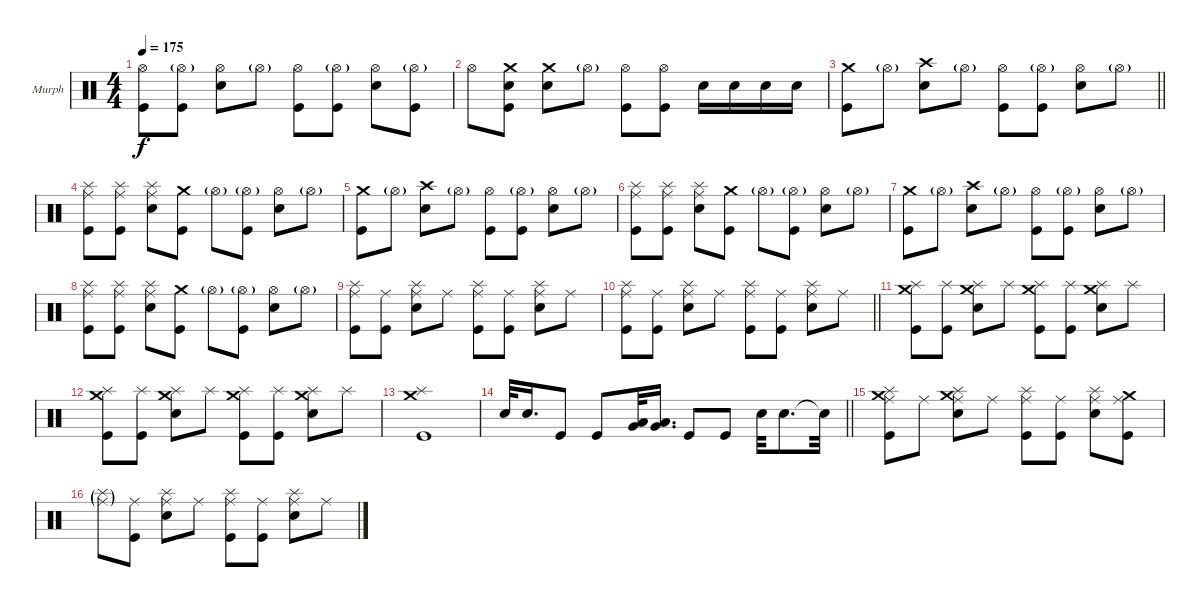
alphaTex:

\defaultSystemsLayout 4
\bracketExtendMode groupsimilarinstruments
\firstSystemTrackNameOrientation horizontal
\otherSystemsTrackNameOrientation horizontal
\track ("Murph" "Murph") {instrument percussion}
\staff {score}
\articulation defaults
\ts (4 4)
\tempo 175
\clef neutral
\scale
0.333333
\ks c
("Kick (hit)" "Hi-Hat (open)").8{dy f} ("Kick (hit)" "Hi-Hat (open)"{g}).8 ("Snare (hit) 2" "Hi-Hat (open)").8 "Hi-Hat (open)"{g}.8 ("Kick (hit)" "Hi-Hat (open)").8 ("Kick (hit)" "Hi-Hat (open)"{g}).8 ("Snare (hit) 2" "Hi-Hat (open)").8 ("Kick (hit)" "Hi-Hat (open)"{g}).8 |
\scale
0.333333 "Hi-Hat (open)".8 ("Kick (hit)" "Snare (hit) 2" "Crash medium (hit)").8 ("Snare (hit) 2" "Crash medium (hit)").8 "Hi-Hat (open)"{g}.8 ("Kick (hit)" "Hi-Hat (open)").8 ("Kick (hit)" "Hi-Hat (open)").8 "Snare (hit) 2".16 "Snare (hit) 2".16 "Snare (hit) 2".16 "Snare (hit) 2".16 |
\scale
0.333333
\barLineRight lightlight
("Kick (hit)" "Crash medium (hit)").8 "Hi-Hat (open)"{g}.8 ("Snare (hit) 2" "Crash high (hit)").8 "Hi-Hat (open)"{g}.8 ("Kick (hit)" "Hi-Hat (open)").8 ("Kick (hit)" "Hi-Hat (open)"{g}).8 ("Snare (hit) 2" "Hi-Hat (open)").8 "Hi-Hat (open)"{g}.8 |
\scale
0.333333 ("Kick (hit)" "Splash (hit)" "Ride (middle)").8 ("Kick (hit)" "Splash (hit)" "Ride (middle)").8 ("Snare (hit) 2" "Splash (hit)" "Ride (middle)").8 ("Kick (hit)" "Crash medium (hit)").8 "Hi-Hat (open)"{g}.8 ("Kick (hit)" "Hi-Hat (open)"{g}).8 ("Snare (hit) 2" "Hi-Hat (open)").8 "Hi-Hat (open)"{g}.8 |
\scale
0.333333 ("Kick (hit)" "Crash medium (hit)").8 "Hi-Hat (open)"{g}.8 ("Snare (hit) 2" "Crash high (hit)").8 "Hi-Hat (open)"{g}.8 ("Kick (hit)" "Hi-Hat (open)").8 ("Kick (hit)" "Hi-Hat (open)"{g}).8 ("Snare (hit) 2" "Hi-Hat (open)").8 "Hi-Hat (open)"{g}.8 |
\scale
0.333333 ("Kick (hit)" "Splash (hit)" "Ride (middle)").8 ("Kick (hit)" "Splash (hit)" "Ride (middle)").8 ("Snare (hit) 2" "Splash (hit)" "Ride (middle)").8 ("Kick (hit)" "Crash medium (hit)").8 "Hi-Hat (open)"{g}.8 ("Kick (hit)" "Hi-Hat (open)"{g}).8 ("Snare (hit) 2" "Hi-Hat (open)").8 "Hi-Hat (open)"{g}.8 |
\scale
0.333333 ("Kick (hit)" "Crash medium (hit)").8 "Hi-Hat (open)"{g}.8 ("Snare (hit) 2" "Crash high (hit)").8 "Hi-Hat (open)"{g}.8 ("Kick (hit)" "Hi-Hat (open)").8 ("Kick (hit)" "Hi-Hat (open)"{g}).8 ("Snare (hit) 2" "Hi-Hat (open)").8 "Hi-Hat (open)"{g}.8 |
\scale
0.333333 ("Kick (hit)" "Splash (hit)" "Ride (middle)").8 ("Kick (hit)" "Splash (hit)" "Ride (middle)").8 ("Snare (hit) 2" "Splash (hit)" "Ride (middle)").8 ("Kick (hit)" "Crash medium (hit)").8 "Hi-Hat (open)"{g}.8 ("Kick (hit)" "Hi-Hat (open)"{g}).8 ("Snare (hit) 2" "Hi-Hat (open)").8 "Hi-Hat (open)"{g}.8 |
\scale
0.333333 ("Kick (hit)" "Ride (middle)" "Splash (hit)").8 ("Kick (hit)" "Ride (middle)").8 ("Snare (hit) 2" "Ride (middle)" "Splash (hit)").8 "Ride (middle)".8 ("Kick (hit)" "Ride (middle)" "Splash (hit)").8 ("Kick (hit)" "Ride (middle)").8 ("Snare (hit) 2" "Ride (middle)" "Splash (hit)").8 "Ride (middle)".8 |
\scale
0.333333
\barLineRight lightlight
("Kick (hit)" "Ride (middle)" "Splash (hit)").8 ("Kick (hit)" "Ride (middle)").8 ("Snare (hit) 2" "Ride (middle)" "Splash (hit)").8 "Ride (middle)".8 ("Kick (hit)" "Ride (middle)" "Splash (hit)").8 ("Kick (hit)" "Ride (middle)").8 ("Snare (hit) 2" "Ride (middle)" "Splash (hit)").8 "Ride (middle)".8 |
\scale
0.333333 ("Kick (hit)" "Splash (hit)" "Crash medium (hit)").8 ("Kick (hit)" "Splash (hit)").8 ("Snare (hit) 2" "Splash (hit)" "Crash medium (hit)").8 "Splash (hit)".8 ("Kick (hit)" "Splash (hit)" "Crash medium (hit)").8 ("Kick (hit)" "Splash (hit)").8 ("Snare (hit) 2" "Splash (hit)" "Crash medium (hit)").8 "Splash (hit)".8 |
\scale
0.333333 ("Kick (hit)" "Splash (hit)" "Crash medium (hit)").8 ("Kick (hit)" "Splash (hit)").8 ("Snare (hit) 2" "Splash (hit)" "Crash medium (hit)").8 "Splash (hit)".8 ("Kick (hit)" "Splash (hit)" "Crash medium (hit)").8 ("Kick (hit)" "Splash (hit)").8 ("Snare (hit) 2" "Splash (hit)" "Crash medium (hit)").8 "Splash (hit)".8 |
\scale
0.333333 ("Kick (hit)" "Splash (hit)" "Crash medium (hit)").1 |
\scale
0.333333
\barLineRight lightlight "Snare (hit) 2".32 "Snare (hit) 2".16{d} "Kick (hit)".8 "Kick (hit)".8
("Very Low Tom (hit)" "Low Tom (hit)").32 ("Very Low Tom (hit)" "Low Tom (hit)").16{d} "Kick (hit)".8 "Kick (hit)".8 "Snare (hit) 2".32 "Snare (hit) 2".8{d} "Snare (hit) 2"{t}.32 |
\scale
0.333333 ("Kick (hit)" "Ride (middle)" "Splash (hit)" "Crash medium (hit)").8 "Ride (middle)".8 ("Snare (hit) 2" "Ride (middle)" "Splash (hit)" "Crash medium (hit)").8 "Ride (middle)".8 ("Kick (hit)" "Ride (middle)" "Splash (hit)").8 ("Kick (hit)" "Ride (middle)").8 ("Snare (hit) 2" "Ride (middle)" "Splash (hit)").8 ("Kick (hit)" "Ride (middle)" "Crash medium (hit)").8 |
\scale
0.333333 ("Ride (middle)"{g} "Splash (hit)"{g}).8 ("Kick (hit)" "Ride (middle)").8 ("Snare (hit) 2" "Ride (middle)" "Splash (hit)").8 "Ride (middle)".8 ("Kick (hit)" "Ride (middle)" "Splash (hit)").8 ("Kick (hit)" "Ride (middle)").8 ("Snare (hit) 2" "Ride (middle)" "Splash (hit)").8 "Ride (middle)".8
